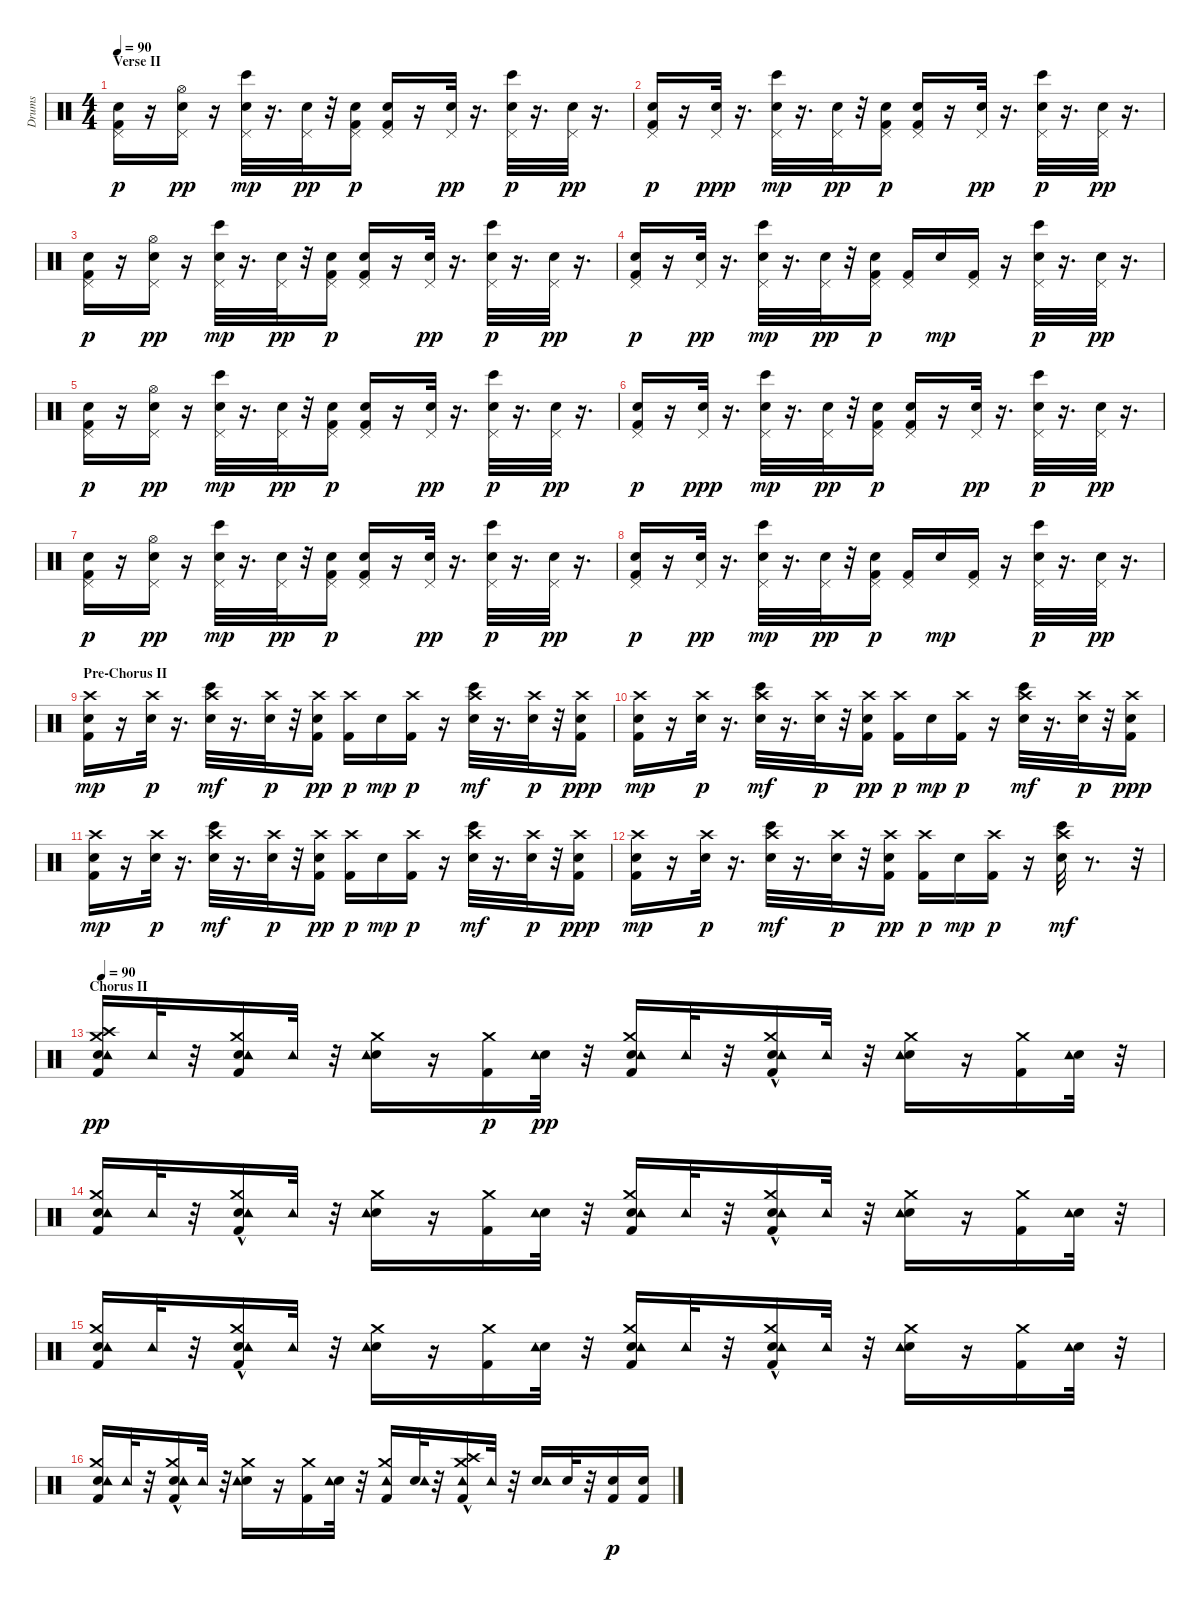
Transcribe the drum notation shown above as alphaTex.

\track ("Drums" "Drums") {instrument percussion}
\staff {score}
\articulation defaults
\ts (4 4)
\section ("" "Verse II")
\tempo 90
\clef neutral
\ks c
("Pedal Hi-Hat (hit)" "Snare (hit) 2" "Kick (hit) 2").16{dy p} r.16 ("Pedal Hi-Hat (hit)" "Hi-Hat (open)" "Snare (hit) 2").16{dy pp} r.16 ("Pedal Hi-Hat (hit)" "Bongo High (hit)" "Snare (hit) 2").32{dy mp} r.16{d} ("Pedal Hi-Hat (hit)" "Snare (hit) 2").32{dy pp} r.32 ("Pedal Hi-Hat (hit)" "Snare (hit) 2" "Kick (hit) 2").16{dy p} ("Pedal Hi-Hat (hit)" "Kick (hit) 2" "Snare (hit) 2").16 r.16 ("Pedal Hi-Hat (hit)" "Snare (hit) 2").32{dy pp} r.16{d} ("Pedal Hi-Hat (hit)" "Snare (hit) 2" "Bongo High (hit)").32{dy p} r.16{d} ("Pedal Hi-Hat (hit)" "Snare (hit) 2").32{dy pp} r.16{d} |
("Pedal Hi-Hat (hit)" "Snare (hit) 2" "Kick (hit) 2").16{dy p} r.16 ("Pedal Hi-Hat (hit)" "Snare (hit) 2").32{dy ppp} r.16{d} ("Pedal Hi-Hat (hit)" "Bongo High (hit)" "Snare (hit) 2").32{dy mp} r.16{d} ("Pedal Hi-Hat (hit)" "Snare (hit) 2").32{dy pp} r.32 ("Pedal Hi-Hat (hit)" "Snare (hit) 2" "Kick (hit) 2").16{dy p} ("Pedal Hi-Hat (hit)" "Kick (hit) 2" "Snare (hit) 2").16 r.16 ("Pedal Hi-Hat (hit)" "Snare (hit) 2").32{dy pp} r.16{d} ("Pedal Hi-Hat (hit)" "Snare (hit) 2" "Bongo High (hit)").32{dy p} r.16{d} ("Pedal Hi-Hat (hit)" "Snare (hit) 2").32{dy pp} r.16{d} |
("Pedal Hi-Hat (hit)" "Snare (hit) 2" "Kick (hit) 2").16{dy p} r.16 ("Hi-Hat (open)" "Pedal Hi-Hat (hit)" "Snare (hit) 2").16{dy pp} r.16 ("Pedal Hi-Hat (hit)" "Bongo High (hit)" "Snare (hit) 2").32{dy mp} r.16{d} ("Pedal Hi-Hat (hit)" "Snare (hit) 2").32{dy pp} r.32 ("Pedal Hi-Hat (hit)" "Snare (hit) 2" "Kick (hit) 2").16{dy p} ("Pedal Hi-Hat (hit)" "Kick (hit) 2" "Snare (hit) 2").16 r.16 ("Pedal Hi-Hat (hit)" "Snare (hit) 2").32{dy pp} r.16{d} ("Pedal Hi-Hat (hit)" "Snare (hit) 2" "Bongo High (hit)").32{dy p} r.16{d} ("Pedal Hi-Hat (hit)" "Snare (hit) 2").32{dy pp} r.16{d} |
("Pedal Hi-Hat (hit)" "Snare (hit) 2" "Kick (hit) 2").16{dy p} r.16 ("Pedal Hi-Hat (hit)" "Snare (hit) 2").32{dy pp} r.16{d} ("Pedal Hi-Hat (hit)" "Bongo High (hit)" "Snare (hit) 2").32{dy mp} r.16{d} ("Pedal Hi-Hat (hit)" "Snare (hit) 2").32{dy pp} r.32 ("Pedal Hi-Hat (hit)" "Snare (hit) 2" "Kick (hit) 2").16{dy p} ("Pedal Hi-Hat (hit)" "Kick (hit) 2").16 "Snare (hit) 2".16{dy mp} ("Kick (hit) 2" "Pedal Hi-Hat (hit)").16 r.16 ("Pedal Hi-Hat (hit)" "Snare (hit) 2" "Bongo High (hit)").32{dy p} r.16{d} ("Pedal Hi-Hat (hit)" "Snare (hit) 2").32{dy pp} r.16{d} |
("Pedal Hi-Hat (hit)" "Snare (hit) 2" "Kick (hit) 2").16{dy p} r.16 ("Pedal Hi-Hat (hit)" "Hi-Hat (open)" "Snare (hit) 2").16{dy pp} r.16 ("Pedal Hi-Hat (hit)" "Bongo High (hit)" "Snare (hit) 2").32{dy mp} r.16{d} ("Pedal Hi-Hat (hit)" "Snare (hit) 2").32{dy pp} r.32 ("Pedal Hi-Hat (hit)" "Snare (hit) 2" "Kick (hit) 2").16{dy p} ("Pedal Hi-Hat (hit)" "Kick (hit) 2" "Snare (hit) 2").16 r.16 ("Pedal Hi-Hat (hit)" "Snare (hit) 2").32{dy pp} r.16{d} ("Pedal Hi-Hat (hit)" "Snare (hit) 2" "Bongo High (hit)").32{dy p} r.16{d} ("Pedal Hi-Hat (hit)" "Snare (hit) 2").32{dy pp} r.16{d} |
("Pedal Hi-Hat (hit)" "Snare (hit) 2" "Kick (hit) 2").16{dy p} r.16 ("Pedal Hi-Hat (hit)" "Snare (hit) 2").32{dy ppp} r.16{d} ("Pedal Hi-Hat (hit)" "Bongo High (hit)" "Snare (hit) 2").32{dy mp} r.16{d} ("Pedal Hi-Hat (hit)" "Snare (hit) 2").32{dy pp} r.32 ("Pedal Hi-Hat (hit)" "Snare (hit) 2" "Kick (hit) 2").16{dy p} ("Pedal Hi-Hat (hit)" "Kick (hit) 2" "Snare (hit) 2").16 r.16 ("Pedal Hi-Hat (hit)" "Snare (hit) 2").32{dy pp} r.16{d} ("Pedal Hi-Hat (hit)" "Snare (hit) 2" "Bongo High (hit)").32{dy p} r.16{d} ("Pedal Hi-Hat (hit)" "Snare (hit) 2").32{dy pp} r.16{d} |
("Pedal Hi-Hat (hit)" "Snare (hit) 2" "Kick (hit) 2").16{dy p} r.16 ("Hi-Hat (open)" "Pedal Hi-Hat (hit)" "Snare (hit) 2").16{dy pp} r.16 ("Pedal Hi-Hat (hit)" "Bongo High (hit)" "Snare (hit) 2").32{dy mp} r.16{d} ("Pedal Hi-Hat (hit)" "Snare (hit) 2").32{dy pp} r.32 ("Pedal Hi-Hat (hit)" "Snare (hit) 2" "Kick (hit) 2").16{dy p} ("Pedal Hi-Hat (hit)" "Kick (hit) 2" "Snare (hit) 2").16 r.16 ("Pedal Hi-Hat (hit)" "Snare (hit) 2").32{dy pp} r.16{d} ("Pedal Hi-Hat (hit)" "Snare (hit) 2" "Bongo High (hit)").32{dy p} r.16{d} ("Pedal Hi-Hat (hit)" "Snare (hit) 2").32{dy pp} r.16{d} |
("Pedal Hi-Hat (hit)" "Snare (hit) 2" "Kick (hit) 2").16{dy p} r.16 ("Pedal Hi-Hat (hit)" "Snare (hit) 2").32{dy pp} r.16{d} ("Pedal Hi-Hat (hit)" "Bongo High (hit)" "Snare (hit) 2").32{dy mp} r.16{d} ("Pedal Hi-Hat (hit)" "Snare (hit) 2").32{dy pp} r.32 ("Pedal Hi-Hat (hit)" "Snare (hit) 2" "Kick (hit) 2").16{dy p} ("Pedal Hi-Hat (hit)" "Kick (hit) 2").16 "Snare (hit) 2".16{dy mp} ("Kick (hit) 2" "Pedal Hi-Hat (hit)").16 r.16 ("Pedal Hi-Hat (hit)" "Snare (hit) 2" "Bongo High (hit)").32{dy p} r.16{d} ("Pedal Hi-Hat (hit)" "Snare (hit) 2").32{dy pp} r.16{d} |
\section ("" "Pre-Chorus II")
("Crash high (hit)" "Kick (hit) 2" "Electric Snare (hit)").16{dy mp volume 6 balance 12} r.16 ("Crash high (hit)" "Electric Snare (hit)").32{dy p} r.16{d} ("Crash high (hit)" "Bongo High (hit)" "Electric Snare (hit)").32{dy mf} r.16{d} ("Crash high (hit)" "Electric Snare (hit)").32{dy p} r.32 ("Crash high (hit)" "Kick (hit) 2" "Electric Snare (hit)").16{dy pp} ("Crash high (hit)" "Kick (hit) 2").16{dy p} "Electric Snare (hit)".16{dy mp} ("Kick (hit) 2" "Crash high (hit)").16{dy p} r.16 ("Crash high (hit)" "Bongo High (hit)" "Electric Snare (hit)").32{dy mf} r.16{d} ("Crash high (hit)" "Electric Snare (hit)").32{dy p} r.32 ("Crash high (hit)" "Kick (hit) 2" "Electric Snare (hit)").16{dy ppp} |
("Crash high (hit)" "Kick (hit) 2" "Electric Snare (hit)").16{dy mp} r.16 ("Crash high (hit)" "Electric Snare (hit)").32{dy p} r.16{d} ("Crash high (hit)" "Bongo High (hit)" "Electric Snare (hit)").32{dy mf} r.16{d} ("Crash high (hit)" "Electric Snare (hit)").32{dy p} r.32 ("Crash high (hit)" "Kick (hit) 2" "Electric Snare (hit)").16{dy pp} ("Crash high (hit)" "Kick (hit) 2").16{dy p} "Electric Snare (hit)".16{dy mp} ("Kick (hit) 2" "Crash high (hit)").16{dy p} r.16 ("Crash high (hit)" "Bongo High (hit)" "Electric Snare (hit)").32{dy mf} r.16{d} ("Crash high (hit)" "Electric Snare (hit)").32{dy p} r.32 ("Crash high (hit)" "Kick (hit) 2" "Electric Snare (hit)").16{dy ppp} |
("Crash high (hit)" "Kick (hit) 2" "Electric Snare (hit)").16{dy mp} r.16 ("Crash high (hit)" "Electric Snare (hit)").32{dy p} r.16{d} ("Crash high (hit)" "Bongo High (hit)" "Electric Snare (hit)").32{dy mf} r.16{d} ("Crash high (hit)" "Electric Snare (hit)").32{dy p} r.32 ("Crash high (hit)" "Kick (hit) 2" "Electric Snare (hit)").16{dy pp} ("Crash high (hit)" "Kick (hit) 2").16{dy p} "Electric Snare (hit)".16{dy mp} ("Kick (hit) 2" "Crash high (hit)").16{dy p} r.16 ("Crash high (hit)" "Bongo High (hit)" "Electric Snare (hit)").32{dy mf} r.16{d} ("Crash high (hit)" "Electric Snare (hit)").32{dy p} r.32 ("Crash high (hit)" "Kick (hit) 2" "Electric Snare (hit)").16{dy ppp} |
("Crash high (hit)" "Kick (hit) 2" "Electric Snare (hit)").16{dy mp} r.16 ("Crash high (hit)" "Electric Snare (hit)").32{dy p} r.16{d} ("Crash high (hit)" "Bongo High (hit)" "Electric Snare (hit)").32{dy mf} r.16{d} ("Crash high (hit)" "Electric Snare (hit)").32{dy p} r.32 ("Crash high (hit)" "Kick (hit) 2" "Electric Snare (hit)").16{dy pp} ("Crash high (hit)" "Kick (hit) 2").16{dy p} "Electric Snare (hit)".16{dy mp} ("Kick (hit) 2" "Crash high (hit)").16{dy p} r.16 ("Crash high (hit)" "Bongo High (hit)" "Electric Snare (hit)").32{dy mf} r.8{d} r.32 |
\section ("" "Chorus II")
\tempo 90
("Electric Snare (hit)" "Crash medium (hit)" "Kick (hit) 2" "Crash high (hit)" "Tambourine (hit)").16{dy pp volume 12 balance 8} "Tambourine (hit)".32 r.32 ("Electric Snare (hit)" "Kick (hit) 2" "Crash medium (hit)" "Tambourine (hit)").16 "Tambourine (hit)".32 r.32 ("Electric Snare (hit)" "Crash medium (hit)" "Tambourine (hit)").16 r.16 ("Crash medium (hit)" "Kick (hit) 2").16{dy p} ("Electric Snare (hit)" "Tambourine (hit)").32{dy pp} r.32 ("Crash medium (hit)" "Electric Snare (hit)" "Kick (hit) 2" "Tambourine (hit)").16 "Tambourine (hit)".32 r.32 ("Crash medium (hit)"{hac} "Electric Snare (hit)" "Kick (hit) 2" "Tambourine (hit)").16 "Tambourine (hit)".32 r.32 ("Crash medium (hit)" "Electric Snare (hit)" "Tambourine (hit)").16 r.16 ("Crash medium (hit)" "Kick (hit) 2").16 ("Electric Snare (hit)" "Tambourine (hit)").32 r.32 |
("Crash medium (hit)" "Electric Snare (hit)" "Kick (hit) 2" "Tambourine (hit)").16 "Tambourine (hit)".32 r.32 ("Crash medium (hit)"{hac} "Electric Snare (hit)" "Kick (hit) 2" "Tambourine (hit)").16 "Tambourine (hit)".32 r.32 ("Crash medium (hit)" "Electric Snare (hit)" "Tambourine (hit)").16 r.16 ("Kick (hit) 2" "Crash medium (hit)").16 ("Electric Snare (hit)" "Tambourine (hit)").32 r.32 ("Electric Snare (hit)" "Kick (hit) 2" "Crash medium (hit)" "Tambourine (hit)").16 "Tambourine (hit)".32 r.32 ("Electric Snare (hit)" "Kick (hit) 2" "Crash medium (hit)"{hac} "Tambourine (hit)").16 "Tambourine (hit)".32 r.32 ("Crash medium (hit)" "Electric Snare (hit)" "Tambourine (hit)").16 r.16 ("Crash medium (hit)" "Kick (hit) 2").16 ("Electric Snare (hit)" "Tambourine (hit)").32 r.32 |
("Kick (hit) 2" "Electric Snare (hit)" "Crash medium (hit)" "Tambourine (hit)").16 "Tambourine (hit)".32 r.32 ("Kick (hit) 2" "Electric Snare (hit)" "Crash medium (hit)"{hac} "Tambourine (hit)").16 "Tambourine (hit)".32 r.32 ("Crash medium (hit)" "Electric Snare (hit)" "Tambourine (hit)").16 r.16 ("Kick (hit) 2" "Crash medium (hit)").16 ("Electric Snare (hit)" "Tambourine (hit)").32 r.32 ("Crash medium (hit)" "Electric Snare (hit)" "Kick (hit) 2" "Tambourine (hit)").16 "Tambourine (hit)".32 r.32 ("Crash medium (hit)"{hac} "Electric Snare (hit)" "Kick (hit) 2" "Tambourine (hit)").16 "Tambourine (hit)".32 r.32 ("Crash medium (hit)" "Electric Snare (hit)" "Tambourine (hit)").16 r.16 ("Kick (hit) 2" "Crash medium (hit)").16 ("Electric Snare (hit)" "Tambourine (hit)").32 r.32 |
("Electric Snare (hit)" "Kick (hit) 2" "Crash medium (hit)" "Tambourine (hit)").16 "Tambourine (hit)".32 r.32 ("Electric Snare (hit)" "Kick (hit) 2" "Crash medium (hit)"{hac} "Tambourine (hit)").16 "Tambourine (hit)".32 r.32 ("Crash medium (hit)" "Electric Snare (hit)" "Tambourine (hit)").16 r.16 ("Kick (hit) 2" "Crash medium (hit)").16 ("Electric Snare (hit)" "Tambourine (hit)").32 r.32 ("Kick (hit) 2" "Crash medium (hit)" "Tambourine (hit)").16 ("Electric Snare (hit)" "Tambourine (hit)").32 r.32 ("Kick (hit) 2" "Crash medium (hit)"{hac} "Crash high (hit)"{hac} "Tambourine (hit)").16 "Tambourine (hit)".32 r.32 ("Electric Snare (hit)" "Tambourine (hit)").16 "Electric Snare (hit)".32 r.32 ("Electric Snare (hit)" "Kick (hit) 2").16{dy p} ("Kick (hit) 2" "Electric Snare (hit)").16
